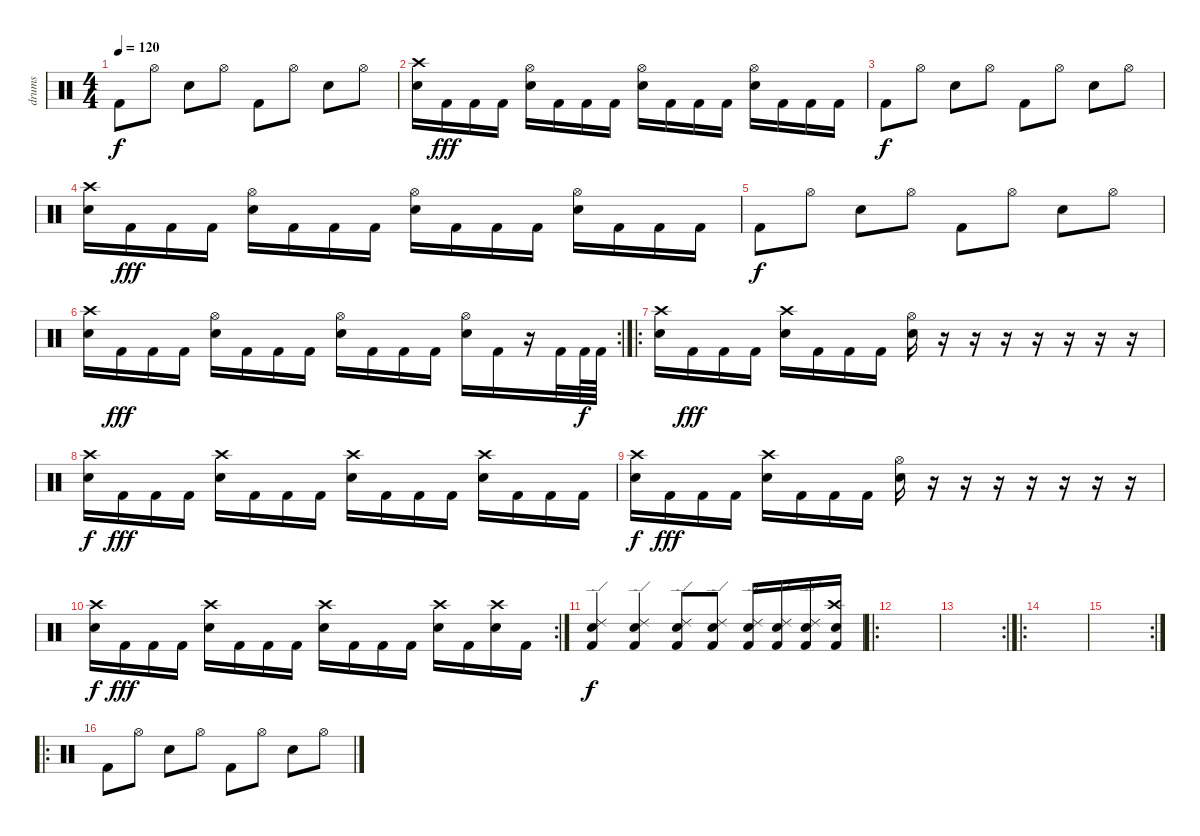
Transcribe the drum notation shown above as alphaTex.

\track ("drums" "drums") {instrument percussion}
\staff {score}
\articulation defaults
\ts (4 4)
\tempo 120
\clef neutral
\ks c "Kick (hit) 2".8{dy f} "Hi-Hat (open)".8 "Snare (hit) 2".8 "Hi-Hat (open)".8 "Kick (hit) 2".8 "Hi-Hat (open)".8 "Snare (hit) 2".8 "Hi-Hat (open)".8
|
("Crash high (hit)" "Electric Snare (hit)").16 "Kick (hit) 2".16{dy fff} "Kick (hit) 2".16 "Kick (hit) 2".16 ("Hi-Hat (open)" "Electric Snare (hit)").16 "Kick (hit) 2".16 "Kick (hit) 2".16 "Kick (hit) 2".16 ("Hi-Hat (open)" "Electric Snare (hit)").16 "Kick (hit) 2".16 "Kick (hit) 2".16 "Kick (hit) 2".16 ("Hi-Hat (open)" "Electric Snare (hit)").16 "Kick (hit) 2".16 "Kick (hit) 2".16 "Kick (hit) 2".16 |
"Kick (hit) 2".8{dy f} "Hi-Hat (open)".8 "Snare (hit) 2".8 "Hi-Hat (open)".8 "Kick (hit) 2".8 "Hi-Hat (open)".8 "Snare (hit) 2".8 "Hi-Hat (open)".8 |
("Crash high (hit)" "Electric Snare (hit)").16 "Kick (hit) 2".16{dy fff} "Kick (hit) 2".16 "Kick (hit) 2".16 ("Hi-Hat (open)" "Electric Snare (hit)").16 "Kick (hit) 2".16 "Kick (hit) 2".16 "Kick (hit) 2".16 ("Hi-Hat (open)" "Electric Snare (hit)").16 "Kick (hit) 2".16 "Kick (hit) 2".16 "Kick (hit) 2".16 ("Hi-Hat (open)" "Electric Snare (hit)").16 "Kick (hit) 2".16 "Kick (hit) 2".16 "Kick (hit) 2".16 |
"Kick (hit) 2".8{dy f} "Hi-Hat (open)".8 "Snare (hit) 2".8 "Hi-Hat (open)".8 "Kick (hit) 2".8 "Hi-Hat (open)".8 "Snare (hit) 2".8 "Hi-Hat (open)".8 |
\rc 2
("Crash high (hit)" "Electric Snare (hit)").16 "Kick (hit) 2".16{dy fff} "Kick (hit) 2".16 "Kick (hit) 2".16 ("Hi-Hat (open)" "Electric Snare (hit)").16 "Kick (hit) 2".16 "Kick (hit) 2".16 "Kick (hit) 2".16 ("Hi-Hat (open)" "Electric Snare (hit)").16 "Kick (hit) 2".16 "Kick (hit) 2".16 "Kick (hit) 2".16 ("Hi-Hat (open)" "Electric Snare (hit)").16 "Kick (hit) 2".16 r.16 "Kick (hit) 2".32 "Kick (hit) 2".64{dy f} "Kick (hit) 2".64 |
\ro
("Crash high (hit)" "Electric Snare (hit)").16 "Kick (hit) 2".16{dy fff} "Kick (hit) 2".16 "Kick (hit) 2".16 ("Crash high (hit)" "Electric Snare (hit)").16 "Kick (hit) 2".16 "Kick (hit) 2".16 "Kick (hit) 2".16 ("Hi-Hat (open)" "Electric Snare (hit)").16 r.16 r.16 r.16 r.16 r.16 r.16 r.16 |
("Crash high (hit)" "Electric Snare (hit)").16{dy f} "Kick (hit) 2".16{dy fff} "Kick (hit) 2".16 "Kick (hit) 2".16 ("Crash high (hit)" "Electric Snare (hit)").16 "Kick (hit) 2".16 "Kick (hit) 2".16 "Kick (hit) 2".16 ("Crash high (hit)" "Electric Snare (hit)").16 "Kick (hit) 2".16 "Kick (hit) 2".16 "Kick (hit) 2".16 ("Crash high (hit)" "Electric Snare (hit)").16 "Kick (hit) 2".16 "Kick (hit) 2".16 "Kick (hit) 2".16 |
("Crash high (hit)" "Electric Snare (hit)").16{dy f} "Kick (hit) 2".16{dy fff} "Kick (hit) 2".16 "Kick (hit) 2".16 ("Crash high (hit)" "Electric Snare (hit)").16 "Kick (hit) 2".16 "Kick (hit) 2".16 "Kick (hit) 2".16 ("Hi-Hat (open)" "Electric Snare (hit)").16 r.16 r.16 r.16 r.16 r.16 r.16 r.16 |
\rc 2
("Crash high (hit)" "Electric Snare (hit)").16{dy f} "Kick (hit) 2".16{dy fff} "Kick (hit) 2".16 "Kick (hit) 2".16 ("Crash high (hit)" "Electric Snare (hit)").16 "Kick (hit) 2".16 "Kick (hit) 2".16 "Kick (hit) 2".16 ("Crash high (hit)" "Electric Snare (hit)").16 "Kick (hit) 2".16 "Kick (hit) 2".16 "Kick (hit) 2".16 ("Crash high (hit)" "Electric Snare (hit)").16 "Kick (hit) 2".16 ("Crash high (hit)" "Electric Snare (hit)").16 "Kick (hit) 2".16 |
("Ride (edge) 2" "Electric Snare (hit)" "Kick (hit) 2").4{dy f} ("Ride (edge) 2" "Electric Snare (hit)" "Kick (hit) 2").4 ("Ride (edge) 2" "Electric Snare (hit)" "Kick (hit) 2").8 ("Ride (edge) 2" "Electric Snare (hit)" "Kick (hit) 2").8 ("Ride (edge) 2" "Electric Snare (hit)" "Kick (hit) 2").16 ("Ride (edge) 2" "Electric Snare (hit)" "Kick (hit) 2").16 ("Ride (edge) 2" "Electric Snare (hit)" "Kick (hit) 2").16 ("Crash high (hit)" "Electric Snare (hit)" "Kick (hit) 2").16 |
\ro
|
\rc 2
|
\ro
|
\rc 2
|
\ro "Kick (hit) 2".8 "Hi-Hat (open)".8 "Snare (hit) 2".8 "Hi-Hat (open)".8 "Kick (hit) 2".8 "Hi-Hat (open)".8 "Snare (hit) 2".8 "Hi-Hat (open)".8
